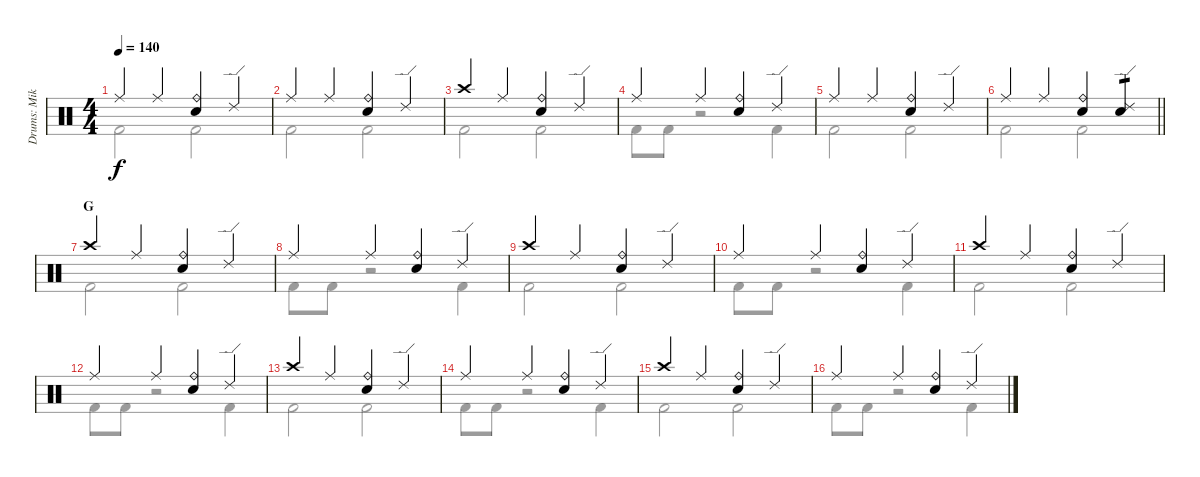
\track ("Drums: Mike" "Drums: Mik") {instrument percussion}
\staff {score}
\articulation defaults
\voice
\ts (4 4)
\tempo 140
\clef neutral
\ks c "Ride (middle)".4{dy f} "Ride (middle)".4
("Ride (bell)" "Snare (hit) 2").4 "Ride (edge) 2".4 |
"Ride (middle)".4 "Ride (middle)".4 ("Ride (bell)" "Snare (hit) 2").4 "Ride (edge) 2".4 |
"Crash high (hit)".4 "Ride (middle)".4 ("Ride (bell)" "Snare (hit) 2").4 "Ride (edge) 2".4 |
"Ride (middle)".4 "Ride (middle)".4 ("Ride (bell)" "Snare (hit) 2").4 "Ride (edge) 2".4 |
"Ride (middle)".4 "Ride (middle)".4 ("Ride (bell)" "Snare (hit) 2").4 "Ride (edge) 2".4 |
\barLineRight lightlight "Ride (middle)".4 "Ride (middle)".4
("Ride (bell)" "Snare (hit) 2").4 ("Ride (edge) 2" "Snare (hit) 2").4{tp 1} |
\section ("" "G")
"Crash high (hit)".4 "Ride (middle)".4 ("Ride (bell)" "Snare (hit) 2").4 "Ride (edge) 2".4 |
"Ride (middle)".4 "Ride (middle)".4 ("Ride (bell)" "Snare (hit) 2").4 "Ride (edge) 2".4 |
"Crash high (hit)".4 "Ride (middle)".4 ("Ride (bell)" "Snare (hit) 2").4 "Ride (edge) 2".4 |
"Ride (middle)".4 "Ride (middle)".4 ("Ride (bell)" "Snare (hit) 2").4 "Ride (edge) 2".4 |
"Crash high (hit)".4 "Ride (middle)".4 ("Ride (bell)" "Snare (hit) 2").4 "Ride (edge) 2".4 |
"Ride (middle)".4 "Ride (middle)".4 ("Ride (bell)" "Snare (hit) 2").4 "Ride (edge) 2".4 |
"Crash high (hit)".4 "Ride (middle)".4 ("Ride (bell)" "Snare (hit) 2").4 "Ride (edge) 2".4 |
"Ride (middle)".4 "Ride (middle)".4 ("Ride (bell)" "Snare (hit) 2").4 "Ride (edge) 2".4 |
"Crash high (hit)".4 "Ride (middle)".4 ("Ride (bell)" "Snare (hit) 2").4 "Ride (edge) 2".4 |
"Ride (middle)".4 "Ride (middle)".4 ("Ride (bell)" "Snare (hit) 2").4 "Ride (edge) 2".4
\voice
\clef neutral
\ottava regular
\simile none
\ks c "Kick (hit) 2".2{dy f} "Kick (hit) 2".2
|
"Kick (hit) 2".2 "Kick (hit) 2".2 |
"Kick (hit) 2".2 "Kick (hit) 2".2 |
"Kick (hit) 2".8 "Kick (hit) 2".8 r.2 "Kick (hit) 2".4 |
"Kick (hit) 2".2 "Kick (hit) 2".2 |
\barLineRight lightlight "Kick (hit) 2".2 "Kick (hit) 2".2
|
"Kick (hit) 2".2 "Kick (hit) 2".2 |
"Kick (hit) 2".8 "Kick (hit) 2".8 r.2 "Kick (hit) 2".4 |
"Kick (hit) 2".2 "Kick (hit) 2".2 |
"Kick (hit) 2".8 "Kick (hit) 2".8 r.2 "Kick (hit) 2".4 |
"Kick (hit) 2".2 "Kick (hit) 2".2 |
"Kick (hit) 2".8 "Kick (hit) 2".8 r.2 "Kick (hit) 2".4 |
"Kick (hit) 2".2 "Kick (hit) 2".2 |
"Kick (hit) 2".8 "Kick (hit) 2".8 r.2 "Kick (hit) 2".4 |
"Kick (hit) 2".2 "Kick (hit) 2".2 |
"Kick (hit) 2".8 "Kick (hit) 2".8 r.2 "Kick (hit) 2".4
